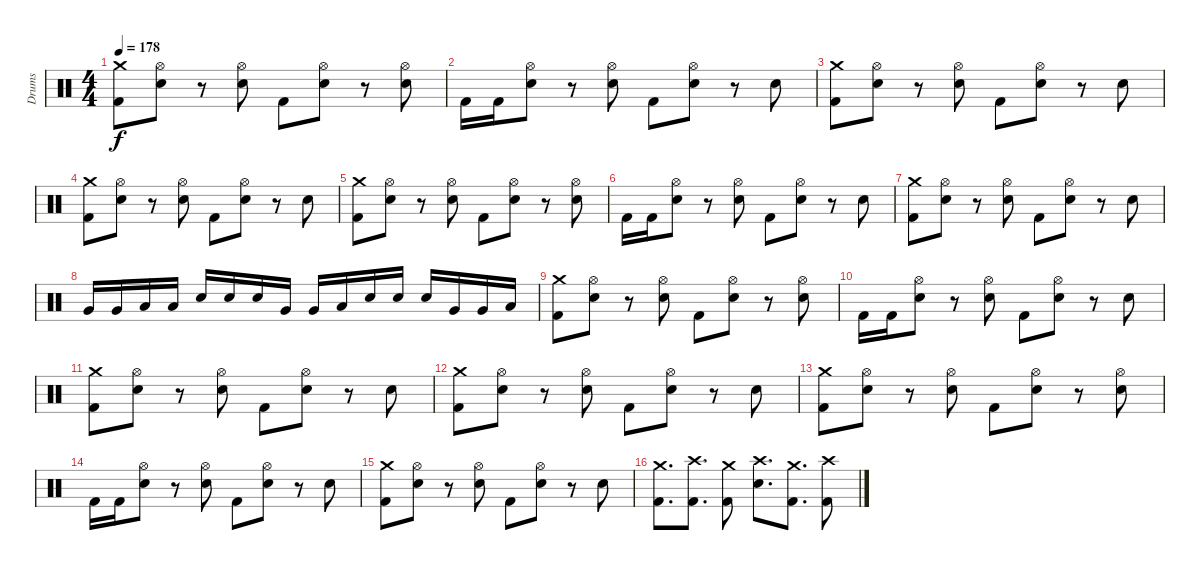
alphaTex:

\track ("Drums" "Drums") {instrument percussion}
\staff
\articulation defaults
\ts (4 4)
\tempo 178
\clef neutral
\ks c
("Crash medium (hit)" "Kick (hit) 2").8{dy f} ("Hi-Hat (open)" "Electric Snare (hit)").8 r.8 ("Hi-Hat (open)" "Electric Snare (hit)").8 "Kick (hit) 2".8 ("Hi-Hat (open)" "Electric Snare (hit)").8 r.8 ("Hi-Hat (open)" "Electric Snare (hit)").8 |
"Kick (hit) 2".16 "Kick (hit) 2".16 ("Hi-Hat (open)" "Electric Snare (hit)").8 r.8 ("Hi-Hat (open)" "Electric Snare (hit)").8 "Kick (hit) 2".8 ("Hi-Hat (open)" "Electric Snare (hit)").8 r.8 "Electric Snare (hit)".8 |
("Crash medium (hit)" "Kick (hit) 2").8 ("Hi-Hat (open)" "Electric Snare (hit)").8 r.8 ("Hi-Hat (open)" "Electric Snare (hit)").8 "Kick (hit) 2".8 ("Hi-Hat (open)" "Electric Snare (hit)").8 r.8 "Electric Snare (hit)".8 |
("Crash medium (hit)" "Kick (hit) 2").8 ("Hi-Hat (open)" "Electric Snare (hit)").8 r.8 ("Hi-Hat (open)" "Electric Snare (hit)").8 "Kick (hit) 2".8 ("Hi-Hat (open)" "Electric Snare (hit)").8 r.8 "Electric Snare (hit)".8 |
("Crash medium (hit)" "Kick (hit) 2").8 ("Hi-Hat (open)" "Electric Snare (hit)").8 r.8 ("Hi-Hat (open)" "Electric Snare (hit)").8 "Kick (hit) 2".8 ("Hi-Hat (open)" "Electric Snare (hit)").8 r.8 ("Hi-Hat (open)" "Electric Snare (hit)").8 |
"Kick (hit) 2".16 "Kick (hit) 2".16 ("Hi-Hat (open)" "Electric Snare (hit)").8 r.8 ("Hi-Hat (open)" "Electric Snare (hit)").8 "Kick (hit) 2".8 ("Hi-Hat (open)" "Electric Snare (hit)").8 r.8 "Electric Snare (hit)".8 |
("Crash medium (hit)" "Kick (hit) 2").8 ("Hi-Hat (open)" "Electric Snare (hit)").8 r.8 ("Hi-Hat (open)" "Electric Snare (hit)").8 "Kick (hit) 2".8 ("Hi-Hat (open)" "Electric Snare (hit)").8 r.8 "Electric Snare (hit)".8 |
"Very Low Tom (hit)".16 "Very Low Tom (hit)".16 "Low Floor Tom (hit)".16 "Low Floor Tom (hit)".16 "Electric Snare (hit)".16 "Electric Snare (hit)".16 "Electric Snare (hit)".16 "Very Low Tom (hit)".16 "Very Low Tom (hit)".16 "Low Floor Tom (hit)".16 "Electric Snare (hit)".16 "Electric Snare (hit)".16 "Electric Snare (hit)".16 "Very Low Tom (hit)".16 "Very Low Tom (hit)".16 "Low Floor Tom (hit)".16 |
("Crash medium (hit)" "Kick (hit) 2").8 ("Hi-Hat (open)" "Electric Snare (hit)").8 r.8 ("Hi-Hat (open)" "Electric Snare (hit)").8 "Kick (hit) 2".8 ("Hi-Hat (open)" "Electric Snare (hit)").8 r.8 ("Hi-Hat (open)" "Electric Snare (hit)").8 |
"Kick (hit) 2".16 "Kick (hit) 2".16 ("Hi-Hat (open)" "Electric Snare (hit)").8 r.8 ("Hi-Hat (open)" "Electric Snare (hit)").8 "Kick (hit) 2".8 ("Hi-Hat (open)" "Electric Snare (hit)").8 r.8 "Electric Snare (hit)".8 |
("Crash medium (hit)" "Kick (hit) 2").8 ("Hi-Hat (open)" "Electric Snare (hit)").8 r.8 ("Hi-Hat (open)" "Electric Snare (hit)").8 "Kick (hit) 2".8 ("Hi-Hat (open)" "Electric Snare (hit)").8 r.8 "Electric Snare (hit)".8 |
("Crash medium (hit)" "Kick (hit) 2").8 ("Hi-Hat (open)" "Electric Snare (hit)").8 r.8 ("Hi-Hat (open)" "Electric Snare (hit)").8 "Kick (hit) 2".8 ("Hi-Hat (open)" "Electric Snare (hit)").8 r.8 "Electric Snare (hit)".8 |
("Crash medium (hit)" "Kick (hit) 2").8 ("Hi-Hat (open)" "Electric Snare (hit)").8 r.8 ("Hi-Hat (open)" "Electric Snare (hit)").8 "Kick (hit) 2".8 ("Hi-Hat (open)" "Electric Snare (hit)").8 r.8 ("Hi-Hat (open)" "Electric Snare (hit)").8 |
"Kick (hit) 2".16 "Kick (hit) 2".16 ("Hi-Hat (open)" "Electric Snare (hit)").8 r.8 ("Hi-Hat (open)" "Electric Snare (hit)").8 "Kick (hit) 2".8 ("Hi-Hat (open)" "Electric Snare (hit)").8 r.8 "Electric Snare (hit)".8 |
("Crash medium (hit)" "Kick (hit) 2").8 ("Hi-Hat (open)" "Electric Snare (hit)").8 r.8 ("Hi-Hat (open)" "Electric Snare (hit)").8 "Kick (hit) 2".8 ("Hi-Hat (open)" "Electric Snare (hit)").8 r.8 "Electric Snare (hit)".8 |
("Crash medium (hit)" "Kick (hit) 2").8{d} ("Crash high (hit)" "Kick (hit) 2").8{d} ("Crash medium (hit)" "Kick (hit) 2").8 ("Crash high (hit)" "Electric Snare (hit)").8{d} ("Crash medium (hit)" "Kick (hit) 2").8{d} ("Crash high (hit)" "Kick (hit) 2").8
